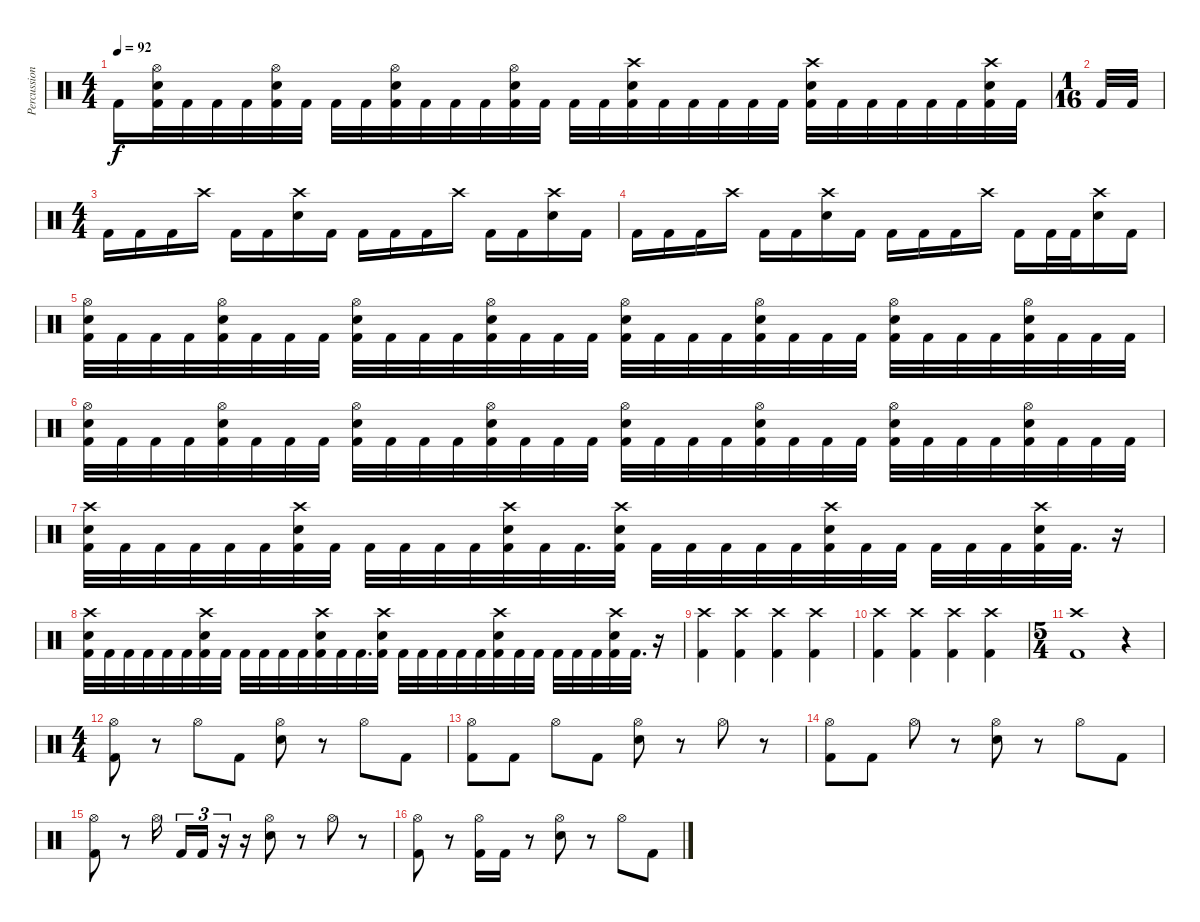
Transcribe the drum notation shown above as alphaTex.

\track ("Percussion" "Percussion") {instrument percussion}
\staff {score}
\articulation defaults
\ts (4 4)
\tempo 92
\clef neutral
\ks c "Kick (hit) 2".16{dy f}
("Kick (hit) 2" "Electric Snare (hit)" "Hi-Hat (open)").32 "Kick (hit) 2".32 "Kick (hit) 2".32 "Kick (hit) 2".32 ("Kick (hit) 2" "Electric Snare (hit)" "Hi-Hat (open)").32 "Kick (hit) 2".32 "Kick (hit) 2".32 "Kick (hit) 2".32 ("Kick (hit) 2" "Electric Snare (hit)" "Hi-Hat (open)").32 "Kick (hit) 2".32 "Kick (hit) 2".32 "Kick (hit) 2".32 ("Kick (hit) 2" "Electric Snare (hit)" "Hi-Hat (open)").32 "Kick (hit) 2".32 "Kick (hit) 2".32 "Kick (hit) 2".32 ("Kick (hit) 2" "Crash high (hit)" "Electric Snare (hit)").32 "Kick (hit) 2".32 "Kick (hit) 2".32 "Kick (hit) 2".32 "Kick (hit) 2".32 "Kick (hit) 2".32 ("Kick (hit) 2" "Crash high (hit)" "Electric Snare (hit)").32 "Kick (hit) 2".32 "Kick (hit) 2".32 "Kick (hit) 2".32 "Kick (hit) 2".32 "Kick (hit) 2".32 ("Kick (hit) 2" "Crash high (hit)" "Electric Snare (hit)").32 "Kick (hit) 2".32 |
\ts (1 16)
"Kick (hit) 2".32 "Kick (hit) 2".32 |
\ts (4 4)
"Kick (hit) 2".16 "Kick (hit) 2".16 "Kick (hit) 2".16 "Crash high (hit)".16 "Kick (hit) 2".16 "Kick (hit) 2".16 ("Crash high (hit)" "Electric Snare (hit)").16 "Kick (hit) 2".16 "Kick (hit) 2".16 "Kick (hit) 2".16 "Kick (hit) 2".16 "Crash high (hit)".16 "Kick (hit) 2".16 "Kick (hit) 2".16 ("Crash high (hit)" "Electric Snare (hit)").16 "Kick (hit) 2".16 |
"Kick (hit) 2".16 "Kick (hit) 2".16 "Kick (hit) 2".16 "Crash high (hit)".16 "Kick (hit) 2".16 "Kick (hit) 2".16 ("Crash high (hit)" "Electric Snare (hit)").16 "Kick (hit) 2".16 "Kick (hit) 2".16 "Kick (hit) 2".16 "Kick (hit) 2".16 "Crash high (hit)".16 "Kick (hit) 2".16 "Kick (hit) 2".32 "Kick (hit) 2".32 ("Crash high (hit)" "Electric Snare (hit)").16 "Kick (hit) 2".16 |
("Kick (hit) 2" "Electric Snare (hit)" "Hi-Hat (open)").32 "Kick (hit) 2".32 "Kick (hit) 2".32 "Kick (hit) 2".32 ("Kick (hit) 2" "Electric Snare (hit)" "Hi-Hat (open)").32 "Kick (hit) 2".32 "Kick (hit) 2".32 "Kick (hit) 2".32 ("Kick (hit) 2" "Electric Snare (hit)" "Hi-Hat (open)").32 "Kick (hit) 2".32 "Kick (hit) 2".32 "Kick (hit) 2".32 ("Kick (hit) 2" "Electric Snare (hit)" "Hi-Hat (open)").32 "Kick (hit) 2".32 "Kick (hit) 2".32 "Kick (hit) 2".32 ("Kick (hit) 2" "Electric Snare (hit)" "Hi-Hat (open)").32 "Kick (hit) 2".32 "Kick (hit) 2".32 "Kick (hit) 2".32 ("Kick (hit) 2" "Electric Snare (hit)" "Hi-Hat (open)").32 "Kick (hit) 2".32 "Kick (hit) 2".32 "Kick (hit) 2".32 ("Kick (hit) 2" "Electric Snare (hit)" "Hi-Hat (open)").32 "Kick (hit) 2".32 "Kick (hit) 2".32 "Kick (hit) 2".32 ("Kick (hit) 2" "Hi-Hat (open)" "Electric Snare (hit)").32 "Kick (hit) 2".32 "Kick (hit) 2".32 "Kick (hit) 2".32 |
("Kick (hit) 2" "Electric Snare (hit)" "Hi-Hat (open)").32 "Kick (hit) 2".32 "Kick (hit) 2".32 "Kick (hit) 2".32 ("Kick (hit) 2" "Electric Snare (hit)" "Hi-Hat (open)").32 "Kick (hit) 2".32 "Kick (hit) 2".32 "Kick (hit) 2".32 ("Kick (hit) 2" "Electric Snare (hit)" "Hi-Hat (open)").32 "Kick (hit) 2".32 "Kick (hit) 2".32 "Kick (hit) 2".32 ("Kick (hit) 2" "Electric Snare (hit)" "Hi-Hat (open)").32 "Kick (hit) 2".32 "Kick (hit) 2".32 "Kick (hit) 2".32 ("Kick (hit) 2" "Electric Snare (hit)" "Hi-Hat (open)").32 "Kick (hit) 2".32 "Kick (hit) 2".32 "Kick (hit) 2".32 ("Kick (hit) 2" "Electric Snare (hit)" "Hi-Hat (open)").32 "Kick (hit) 2".32 "Kick (hit) 2".32 "Kick (hit) 2".32 ("Kick (hit) 2" "Electric Snare (hit)" "Hi-Hat (open)").32 "Kick (hit) 2".32 "Kick (hit) 2".32 "Kick (hit) 2".32 ("Kick (hit) 2" "Hi-Hat (open)" "Electric Snare (hit)").32 "Kick (hit) 2".32 "Kick (hit) 2".32 "Kick (hit) 2".32 |
("Kick (hit) 2" "Electric Snare (hit)" "Crash high (hit)").32 "Kick (hit) 2".32 "Kick (hit) 2".32 "Kick (hit) 2".32 "Kick (hit) 2".32 "Kick (hit) 2".32 ("Kick (hit) 2" "Electric Snare (hit)" "Crash high (hit)").32 "Kick (hit) 2".32 "Kick (hit) 2".32 "Kick (hit) 2".32 "Kick (hit) 2".32 "Kick (hit) 2".32 ("Kick (hit) 2" "Electric Snare (hit)" "Crash high (hit)").32 "Kick (hit) 2".32 "Kick (hit) 2".32{d} ("Kick (hit) 2" "Crash high (hit)" "Electric Snare (hit)").32 "Kick (hit) 2".32 "Kick (hit) 2".32 "Kick (hit) 2".32 "Kick (hit) 2".32 "Kick (hit) 2".32 ("Kick (hit) 2" "Crash high (hit)" "Electric Snare (hit)").32 "Kick (hit) 2".32 "Kick (hit) 2".32 "Kick (hit) 2".32 "Kick (hit) 2".32 "Kick (hit) 2".32 ("Kick (hit) 2" "Crash high (hit)" "Electric Snare (hit)").32 "Kick (hit) 2".32{d} r.16 |
("Kick (hit) 2" "Electric Snare (hit)" "Crash high (hit)").32 "Kick (hit) 2".32 "Kick (hit) 2".32 "Kick (hit) 2".32 "Kick (hit) 2".32 "Kick (hit) 2".32 ("Kick (hit) 2" "Electric Snare (hit)" "Crash high (hit)").32 "Kick (hit) 2".32 "Kick (hit) 2".32 "Kick (hit) 2".32 "Kick (hit) 2".32 "Kick (hit) 2".32 ("Kick (hit) 2" "Electric Snare (hit)" "Crash high (hit)").32 "Kick (hit) 2".32 "Kick (hit) 2".32{d} ("Kick (hit) 2" "Crash high (hit)" "Electric Snare (hit)").32 "Kick (hit) 2".32 "Kick (hit) 2".32 "Kick (hit) 2".32 "Kick (hit) 2".32 "Kick (hit) 2".32 ("Kick (hit) 2" "Crash high (hit)" "Electric Snare (hit)").32 "Kick (hit) 2".32 "Kick (hit) 2".32 "Kick (hit) 2".32 "Kick (hit) 2".32 "Kick (hit) 2".32 ("Kick (hit) 2" "Crash high (hit)" "Electric Snare (hit)").32 "Kick (hit) 2".32{d} r.16 |
("Kick (hit) 2" "Crash high (hit)").4 ("Kick (hit) 2" "Crash high (hit)").4 ("Kick (hit) 2" "Crash high (hit)").4 ("Kick (hit) 2" "Crash high (hit)").4 |
("Kick (hit) 2" "Crash high (hit)").4 ("Kick (hit) 2" "Crash high (hit)").4 ("Kick (hit) 2" "Crash high (hit)").4 ("Kick (hit) 2" "Crash high (hit)").4 |
\ts (5 4)
("Kick (hit) 2" "Crash high (hit)").1 r.4 |
\ts (4 4)
("Hi-Hat (open)" "Kick (hit) 2").8 r.8 "Hi-Hat (open)".8 "Kick (hit) 2".8 ("Hi-Hat (open)" "Electric Snare (hit)").8 r.8 "Hi-Hat (open)".8 "Kick (hit) 2".8 |
("Hi-Hat (open)" "Kick (hit) 2").8 "Kick (hit) 2".8 "Hi-Hat (open)".8 "Kick (hit) 2".8 ("Hi-Hat (open)" "Electric Snare (hit)").8 r.8 "Hi-Hat (open)".8 r.8 |
("Hi-Hat (open)" "Kick (hit) 2").8 "Kick (hit) 2".8 "Hi-Hat (open)".8 r.8 ("Hi-Hat (open)" "Electric Snare (hit)").8 r.8 "Hi-Hat (open)".8 "Kick (hit) 2".8 |
("Hi-Hat (open)" "Kick (hit) 2").8 r.8 "Hi-Hat (open)".16{beam splitsecondary} "Kick (hit) 2".16{tu (3 2)} "Kick (hit) 2".16{tu (3 2)} r.16{tu (3 2)} r.16 ("Hi-Hat (open)" "Electric Snare (hit)").8 r.8 "Hi-Hat (open)".8 r.8 |
("Hi-Hat (open)" "Kick (hit) 2").8 r.8 ("Hi-Hat (open)" "Kick (hit) 2").16 "Kick (hit) 2".16 r.8 ("Hi-Hat (open)" "Electric Snare (hit)").8 r.8 "Hi-Hat (open)".8 "Kick (hit) 2".8
